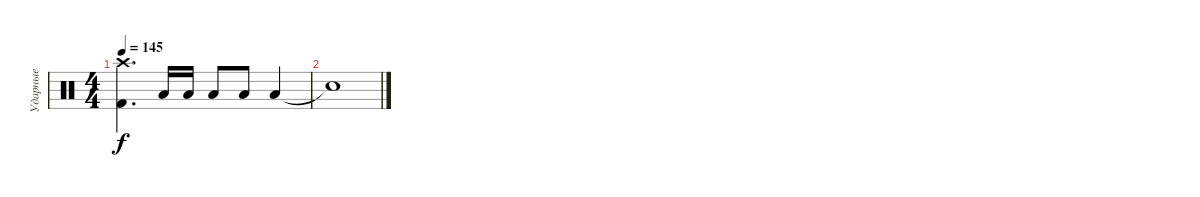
\track ("Ударные" "Ударные") {instrument percussion}
\staff {score}
\articulation defaults
\ts (4 4)
\tempo 145
\clef neutral
\ks c
("Crash high (hit)" "Kick (hit) 2").4{d dy f} "Low Tom (hit)".16 "Low Tom (hit)".16 "Low Tom (hit)".8 "Low Tom (hit)".8 "Low Tom (hit)".4 |
"Snare (hit)"{t}.1
